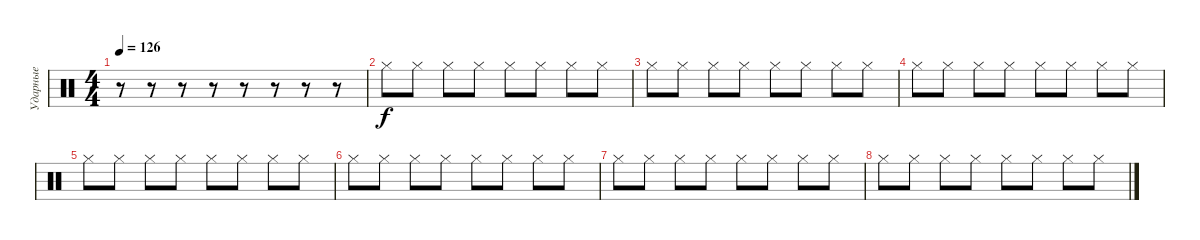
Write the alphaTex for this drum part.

\track ("Ударные" "Ударные") {instrument percussion}
\staff {score}
\articulation defaults
\ts (4 4)
\tempo 126
\clef neutral
\ks c
r.8{dy f} r.8 r.8 r.8 r.8 r.8 r.8 r.8 |
"Hi-Hat (closed)".8 "Hi-Hat (closed)".8 "Hi-Hat (closed)".8 "Hi-Hat (closed)".8 "Hi-Hat (closed)".8 "Hi-Hat (closed)".8 "Hi-Hat (closed)".8 "Hi-Hat (closed)".8 |
"Hi-Hat (closed)".8 "Hi-Hat (closed)".8 "Hi-Hat (closed)".8 "Hi-Hat (closed)".8 "Hi-Hat (closed)".8 "Hi-Hat (closed)".8 "Hi-Hat (closed)".8 "Hi-Hat (closed)".8 |
"Hi-Hat (closed)".8 "Hi-Hat (closed)".8 "Hi-Hat (closed)".8 "Hi-Hat (closed)".8 "Hi-Hat (closed)".8 "Hi-Hat (closed)".8 "Hi-Hat (closed)".8 "Hi-Hat (closed)".8 |
"Hi-Hat (closed)".8 "Hi-Hat (closed)".8 "Hi-Hat (closed)".8 "Hi-Hat (closed)".8 "Hi-Hat (closed)".8 "Hi-Hat (closed)".8 "Hi-Hat (closed)".8 "Hi-Hat (closed)".8 |
"Hi-Hat (closed)".8 "Hi-Hat (closed)".8 "Hi-Hat (closed)".8 "Hi-Hat (closed)".8 "Hi-Hat (closed)".8 "Hi-Hat (closed)".8 "Hi-Hat (closed)".8 "Hi-Hat (closed)".8 |
"Hi-Hat (closed)".8 "Hi-Hat (closed)".8 "Hi-Hat (closed)".8 "Hi-Hat (closed)".8 "Hi-Hat (closed)".8 "Hi-Hat (closed)".8 "Hi-Hat (closed)".8 "Hi-Hat (closed)".8 |
"Hi-Hat (closed)".8 "Hi-Hat (closed)".8 "Hi-Hat (closed)".8 "Hi-Hat (closed)".8 "Hi-Hat (closed)".8 "Hi-Hat (closed)".8 "Hi-Hat (closed)".8 "Hi-Hat (closed)".8
